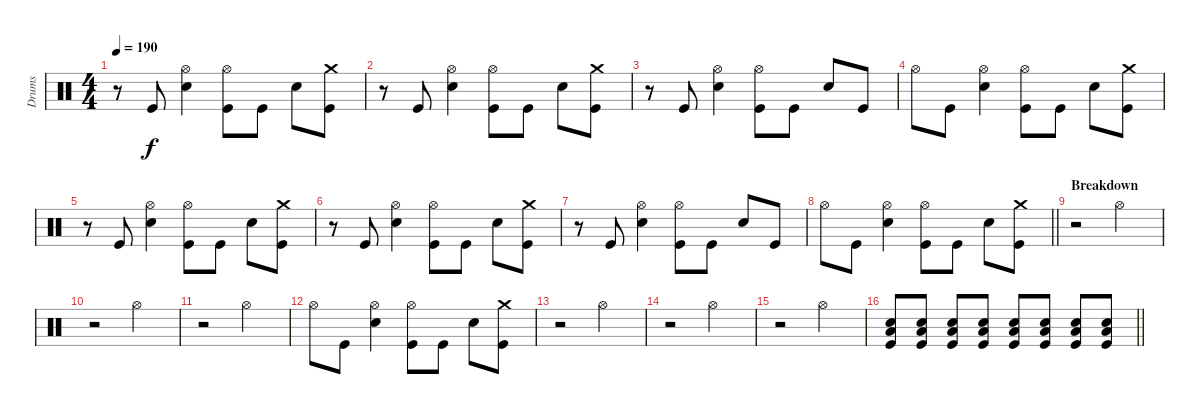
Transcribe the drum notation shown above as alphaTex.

\track ("Drums" "Drums") {instrument percussion}
\staff {score}
\articulation defaults
\ts (4 4)
\tempo 190
\clef neutral
\ks c
r.8{dy f} "Kick (hit)".8 ("Hi-Hat (open)" "Snare (hit) 2").4 ("Hi-Hat (open)" "Kick (hit)").8 "Kick (hit)".8 "Snare (hit) 2".8 ("Crash medium (hit)" "Kick (hit)").8 |
r.8 "Kick (hit)".8 ("Hi-Hat (open)" "Snare (hit) 2").4 ("Hi-Hat (open)" "Kick (hit)").8 "Kick (hit)".8 "Snare (hit) 2".8 ("Crash medium (hit)" "Kick (hit)").8 |
r.8 "Kick (hit)".8 ("Hi-Hat (open)" "Snare (hit) 2").4 ("Hi-Hat (open)" "Kick (hit)").8 "Kick (hit)".8 "Snare (hit) 2".8 "Kick (hit)".8 |
"Hi-Hat (open)".8 "Kick (hit)".8 ("Hi-Hat (open)" "Snare (hit) 2").4 ("Hi-Hat (open)" "Kick (hit)").8 "Kick (hit)".8 "Snare (hit) 2".8 ("Crash medium (hit)" "Kick (hit)").8 |
r.8 "Kick (hit)".8 ("Hi-Hat (open)" "Snare (hit) 2").4 ("Hi-Hat (open)" "Kick (hit)").8 "Kick (hit)".8 "Snare (hit) 2".8 ("Crash medium (hit)" "Kick (hit)").8 |
r.8 "Kick (hit)".8 ("Hi-Hat (open)" "Snare (hit) 2").4 ("Hi-Hat (open)" "Kick (hit)").8 "Kick (hit)".8 "Snare (hit) 2".8 ("Crash medium (hit)" "Kick (hit)").8 |
r.8 "Kick (hit)".8 ("Hi-Hat (open)" "Snare (hit) 2").4 ("Hi-Hat (open)" "Kick (hit)").8 "Kick (hit)".8 "Snare (hit) 2".8 "Kick (hit)".8 |
\barLineRight lightlight "Hi-Hat (open)".8 "Kick (hit)".8
("Hi-Hat (open)" "Snare (hit) 2").4 ("Hi-Hat (open)" "Kick (hit)").8 "Kick (hit)".8 "Snare (hit) 2".8 ("Crash medium (hit)" "Kick (hit)").8 |
\section ("" "Breakdown")
r.2 "Hi-Hat (open)".2 |
r.2 "Hi-Hat (open)".2 |
r.2 "Hi-Hat (open)".2 |
"Hi-Hat (open)".8 "Kick (hit)".8 ("Hi-Hat (open)" "Snare (hit) 2").4 ("Hi-Hat (open)" "Kick (hit)").8 "Kick (hit)".8 "Snare (hit) 2".8 ("Crash medium (hit)" "Kick (hit)").8 |
r.2 "Hi-Hat (open)".2 |
r.2 "Hi-Hat (open)".2 |
r.2 "Hi-Hat (open)".2 |
\barLineRight lightlight
("Snare (hit) 2" "Low Floor Tom (hit)" "Kick (hit)").8 ("Snare (hit) 2" "Low Floor Tom (hit)" "Kick (hit)").8 ("Snare (hit) 2" "Low Floor Tom (hit)" "Kick (hit)").8 ("Snare (hit) 2" "Low Floor Tom (hit)" "Kick (hit)").8 ("Snare (hit) 2" "Low Floor Tom (hit)" "Kick (hit)").8 ("Snare (hit) 2" "Low Floor Tom (hit)" "Kick (hit)").8 ("Snare (hit) 2" "Low Floor Tom (hit)" "Kick (hit)").8 ("Snare (hit) 2" "Low Floor Tom (hit)" "Kick (hit)").8
